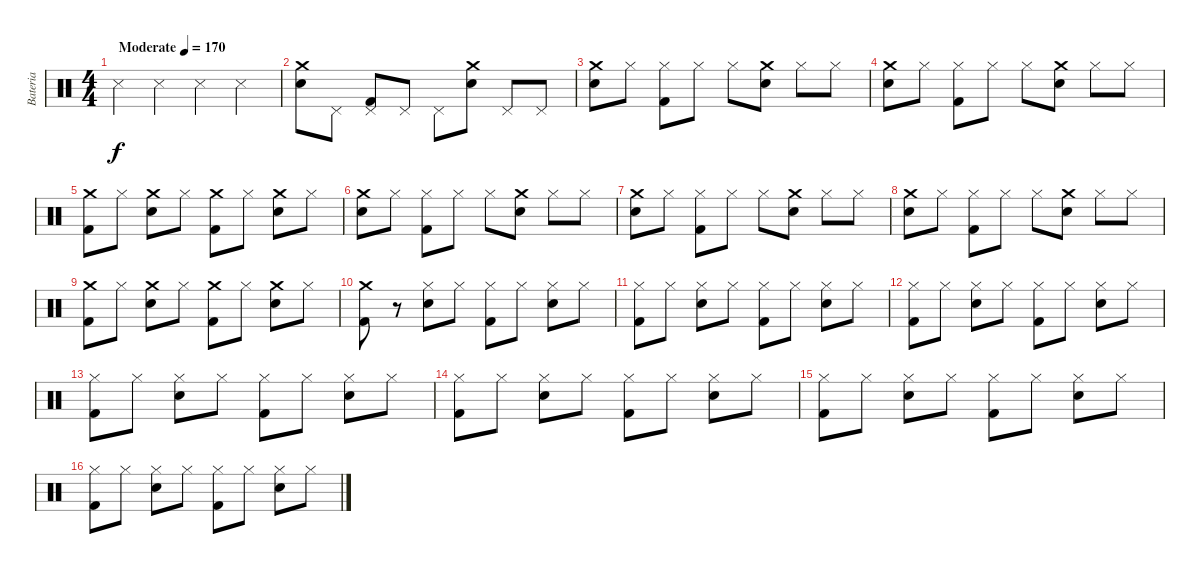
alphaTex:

\track ("Bateria" "Bateria") {instrument percussion}
\staff {score}
\articulation defaults
\ts (4 4)
\tempo (170 "Moderate")
\clef neutral
\ks c "Snare (side stick) 3".4{dy f} "Snare (side stick) 3".4 "Snare (side stick) 3".4 "Snare (side stick) 3".4
|
("Crash medium (hit)" "Snare (hit) 2").8 "Pedal Hi-Hat (hit)".8 ("Pedal Hi-Hat (hit)" "Kick (hit) 2").8 "Pedal Hi-Hat (hit)".8 "Pedal Hi-Hat (hit)".8 ("Crash medium (hit)" "Snare (hit) 2").8 "Pedal Hi-Hat (hit)".8 "Pedal Hi-Hat (hit)".8 |
("Crash medium (hit)" "Snare (hit) 2").8 "Hi-Hat (closed)".8 ("Hi-Hat (closed)" "Kick (hit) 2").8 "Hi-Hat (closed)".8 "Hi-Hat (closed)".8 ("Crash medium (hit)" "Snare (hit) 2").8 "Hi-Hat (closed)".8 "Hi-Hat (closed)".8 |
("Crash medium (hit)" "Snare (hit) 2").8 "Hi-Hat (closed)".8 ("Hi-Hat (closed)" "Kick (hit) 2").8 "Hi-Hat (closed)".8 "Hi-Hat (closed)".8 ("Crash medium (hit)" "Snare (hit) 2").8 "Hi-Hat (closed)".8 "Hi-Hat (closed)".8 |
("Crash medium (hit)" "Kick (hit) 2").8 "Hi-Hat (closed)".8 ("Crash medium (hit)" "Snare (hit) 2").8 "Hi-Hat (closed)".8 ("Crash medium (hit)" "Kick (hit) 2").8 "Hi-Hat (closed)".8 ("Crash medium (hit)" "Snare (hit) 2").8 "Hi-Hat (closed)".8 |
("Crash medium (hit)" "Snare (hit) 2").8 "Hi-Hat (closed)".8 ("Hi-Hat (closed)" "Kick (hit) 2").8 "Hi-Hat (closed)".8 "Hi-Hat (closed)".8 ("Crash medium (hit)" "Snare (hit) 2").8 "Hi-Hat (closed)".8 "Hi-Hat (closed)".8 |
("Crash medium (hit)" "Snare (hit) 2").8 "Hi-Hat (closed)".8 ("Hi-Hat (closed)" "Kick (hit) 2").8 "Hi-Hat (closed)".8 "Hi-Hat (closed)".8 ("Crash medium (hit)" "Snare (hit) 2").8 "Hi-Hat (closed)".8 "Hi-Hat (closed)".8 |
("Crash medium (hit)" "Snare (hit) 2").8 "Hi-Hat (closed)".8 ("Hi-Hat (closed)" "Kick (hit) 2").8 "Hi-Hat (closed)".8 "Hi-Hat (closed)".8 ("Crash medium (hit)" "Snare (hit) 2").8 "Hi-Hat (closed)".8 "Hi-Hat (closed)".8 |
("Crash medium (hit)" "Kick (hit) 2").8 "Hi-Hat (closed)".8 ("Crash medium (hit)" "Snare (hit) 2").8 "Hi-Hat (closed)".8 ("Crash medium (hit)" "Kick (hit) 2").8 "Hi-Hat (closed)".8 ("Crash medium (hit)" "Snare (hit) 2").8 "Hi-Hat (closed)".8 |
("Crash medium (hit)" "Kick (hit) 2").8 r.8 ("Hi-Hat (closed)" "Snare (hit) 2").8 "Hi-Hat (closed)".8 ("Hi-Hat (closed)" "Kick (hit) 2").8 "Hi-Hat (closed)".8 ("Hi-Hat (closed)" "Snare (hit) 2").8 "Hi-Hat (closed)".8 |
("Hi-Hat (closed)" "Kick (hit) 2").8 "Hi-Hat (closed)".8 ("Hi-Hat (closed)" "Snare (hit) 2").8 "Hi-Hat (closed)".8 ("Hi-Hat (closed)" "Kick (hit) 2").8 "Hi-Hat (closed)".8 ("Hi-Hat (closed)" "Snare (hit) 2").8 "Hi-Hat (closed)".8 |
("Hi-Hat (closed)" "Kick (hit) 2").8 "Hi-Hat (closed)".8 ("Hi-Hat (closed)" "Snare (hit) 2").8 "Hi-Hat (closed)".8 ("Hi-Hat (closed)" "Kick (hit) 2").8 "Hi-Hat (closed)".8 ("Hi-Hat (closed)" "Snare (hit) 2").8 "Hi-Hat (closed)".8 |
("Hi-Hat (closed)" "Kick (hit) 2").8 "Hi-Hat (closed)".8 ("Hi-Hat (closed)" "Snare (hit) 2").8 "Hi-Hat (closed)".8 ("Hi-Hat (closed)" "Kick (hit) 2").8 "Hi-Hat (closed)".8 ("Hi-Hat (closed)" "Snare (hit) 2").8 "Hi-Hat (closed)".8 |
("Hi-Hat (closed)" "Kick (hit) 2").8 "Hi-Hat (closed)".8 ("Hi-Hat (closed)" "Snare (hit) 2").8 "Hi-Hat (closed)".8 ("Hi-Hat (closed)" "Kick (hit) 2").8 "Hi-Hat (closed)".8 ("Hi-Hat (closed)" "Snare (hit) 2").8 "Hi-Hat (closed)".8 |
("Hi-Hat (closed)" "Kick (hit) 2").8 "Hi-Hat (closed)".8 ("Hi-Hat (closed)" "Snare (hit) 2").8 "Hi-Hat (closed)".8 ("Hi-Hat (closed)" "Kick (hit) 2").8 "Hi-Hat (closed)".8 ("Hi-Hat (closed)" "Snare (hit) 2").8 "Hi-Hat (closed)".8 |
("Hi-Hat (closed)" "Kick (hit) 2").8 "Hi-Hat (closed)".8 ("Hi-Hat (closed)" "Snare (hit) 2").8 "Hi-Hat (closed)".8 ("Hi-Hat (closed)" "Kick (hit) 2").8 "Hi-Hat (closed)".8 ("Hi-Hat (closed)" "Snare (hit) 2").8 "Hi-Hat (closed)".8
